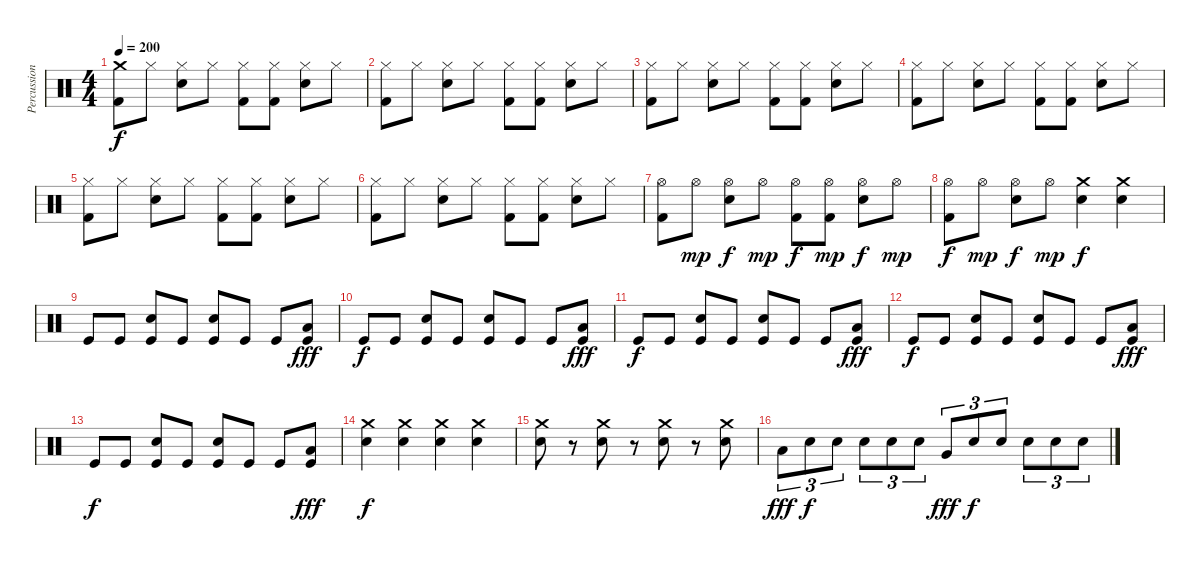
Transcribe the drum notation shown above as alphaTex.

\track ("Percussion" "Percussion") {instrument percussion}
\staff {score}
\articulation defaults
\ts (4 4)
\tempo 200
\clef neutral
\ks c
("Crash medium (hit)" "Kick (hit) 2").8{dy f} "Hi-Hat (closed)".8 ("Hi-Hat (closed)" "Electric Snare (hit)").8 "Hi-Hat (closed)".8 ("Hi-Hat (closed)" "Kick (hit) 2").8 ("Hi-Hat (closed)" "Kick (hit) 2").8 ("Hi-Hat (closed)" "Electric Snare (hit)").8 "Hi-Hat (closed)".8 |
("Hi-Hat (closed)" "Kick (hit) 2").8 "Hi-Hat (closed)".8 ("Hi-Hat (closed)" "Electric Snare (hit)").8 "Hi-Hat (closed)".8 ("Hi-Hat (closed)" "Kick (hit) 2").8 ("Hi-Hat (closed)" "Kick (hit) 2").8 ("Hi-Hat (closed)" "Electric Snare (hit)").8 "Hi-Hat (closed)".8 |
("Hi-Hat (closed)" "Kick (hit) 2").8 "Hi-Hat (closed)".8 ("Hi-Hat (closed)" "Electric Snare (hit)").8 "Hi-Hat (closed)".8 ("Hi-Hat (closed)" "Kick (hit) 2").8 ("Hi-Hat (closed)" "Kick (hit) 2").8 ("Hi-Hat (closed)" "Electric Snare (hit)").8 "Hi-Hat (closed)".8 |
("Hi-Hat (closed)" "Kick (hit) 2").8 "Hi-Hat (closed)".8 ("Hi-Hat (closed)" "Electric Snare (hit)").8 "Hi-Hat (closed)".8 ("Hi-Hat (closed)" "Kick (hit) 2").8 ("Hi-Hat (closed)" "Kick (hit) 2").8 ("Hi-Hat (closed)" "Electric Snare (hit)").8 "Hi-Hat (closed)".8 |
("Hi-Hat (closed)" "Kick (hit) 2").8 "Hi-Hat (closed)".8 ("Hi-Hat (closed)" "Electric Snare (hit)").8 "Hi-Hat (closed)".8 ("Hi-Hat (closed)" "Kick (hit) 2").8 ("Hi-Hat (closed)" "Kick (hit) 2").8 ("Hi-Hat (closed)" "Electric Snare (hit)").8 "Hi-Hat (closed)".8 |
("Hi-Hat (closed)" "Kick (hit) 2").8 "Hi-Hat (closed)".8 ("Hi-Hat (closed)" "Electric Snare (hit)").8 "Hi-Hat (closed)".8 ("Hi-Hat (closed)" "Kick (hit) 2").8 ("Hi-Hat (closed)" "Kick (hit) 2").8 ("Hi-Hat (closed)" "Electric Snare (hit)").8 "Hi-Hat (closed)".8 |
("Hi-Hat (open)" "Kick (hit) 2").8 "Hi-Hat (open)".8{dy mp} ("Hi-Hat (open)" "Electric Snare (hit)").8{dy f} "Hi-Hat (open)".8{dy mp} ("Hi-Hat (open)" "Kick (hit) 2").8{dy f} ("Hi-Hat (open)" "Kick (hit) 2").8{dy mp} ("Hi-Hat (open)" "Electric Snare (hit)").8{dy f} "Hi-Hat (open)".8{dy mp} |
("Hi-Hat (open)" "Kick (hit) 2").8{dy f} "Hi-Hat (open)".8{dy mp} ("Hi-Hat (open)" "Electric Snare (hit)").8{dy f} "Hi-Hat (open)".8{dy mp} ("Crash medium (hit)" "Electric Snare (hit)").4{dy f} ("Crash medium (hit)" "Electric Snare (hit)").4 |
"Kick (hit)".8 "Kick (hit)".8 ("Electric Snare (hit)" "Kick (hit)").8 "Kick (hit)".8 ("Electric Snare (hit)" "Kick (hit)").8 "Kick (hit)".8 "Kick (hit)".8 ("Low Tom (hit)" "Kick (hit)").8{dy fff} |
"Kick (hit)".8{dy f} "Kick (hit)".8 ("Electric Snare (hit)" "Kick (hit)").8 "Kick (hit)".8 ("Electric Snare (hit)" "Kick (hit)").8 "Kick (hit)".8 "Kick (hit)".8 ("Low Tom (hit)" "Kick (hit)").8{dy fff} |
"Kick (hit)".8{dy f} "Kick (hit)".8 ("Electric Snare (hit)" "Kick (hit)").8 "Kick (hit)".8 ("Electric Snare (hit)" "Kick (hit)").8 "Kick (hit)".8 "Kick (hit)".8 ("Low Tom (hit)" "Kick (hit)").8{dy fff} |
"Kick (hit)".8{dy f} "Kick (hit)".8 ("Electric Snare (hit)" "Kick (hit)").8 "Kick (hit)".8 ("Electric Snare (hit)" "Kick (hit)").8 "Kick (hit)".8 "Kick (hit)".8 ("Low Tom (hit)" "Kick (hit)").8{dy fff} |
"Kick (hit)".8{dy f} "Kick (hit)".8 ("Electric Snare (hit)" "Kick (hit)").8 "Kick (hit)".8 ("Electric Snare (hit)" "Kick (hit)").8 "Kick (hit)".8 "Kick (hit)".8 ("Low Tom (hit)" "Kick (hit)").8{dy fff} |
("Electric Snare (hit)" "Crash medium (hit)").4{dy f} ("Electric Snare (hit)" "Crash medium (hit)").4 ("Electric Snare (hit)" "Crash medium (hit)").4 ("Electric Snare (hit)" "Crash medium (hit)").4 |
("Electric Snare (hit)" "Crash medium (hit)").8 r.8 ("Electric Snare (hit)" "Crash medium (hit)").8 r.8 ("Electric Snare (hit)" "Crash medium (hit)").8 r.8 ("Electric Snare (hit)" "Crash medium (hit)").8 |
"Low Tom (hit)".8{tu (3 2) dy fff} "Electric Snare (hit)".8{tu (3 2) dy f} "Electric Snare (hit)".8{tu (3 2)} "Electric Snare (hit)".8{tu (3 2)} "Electric Snare (hit)".8{tu (3 2)} "Electric Snare (hit)".8{tu (3 2)} "Very Low Tom (hit)".8{tu (3 2) dy fff} "Electric Snare (hit)".8{tu (3 2) dy f} "Electric Snare (hit)".8{tu (3 2)} "Electric Snare (hit)".8{tu (3 2)} "Electric Snare (hit)".8{tu (3 2)} "Electric Snare (hit)".8{tu (3 2)}
